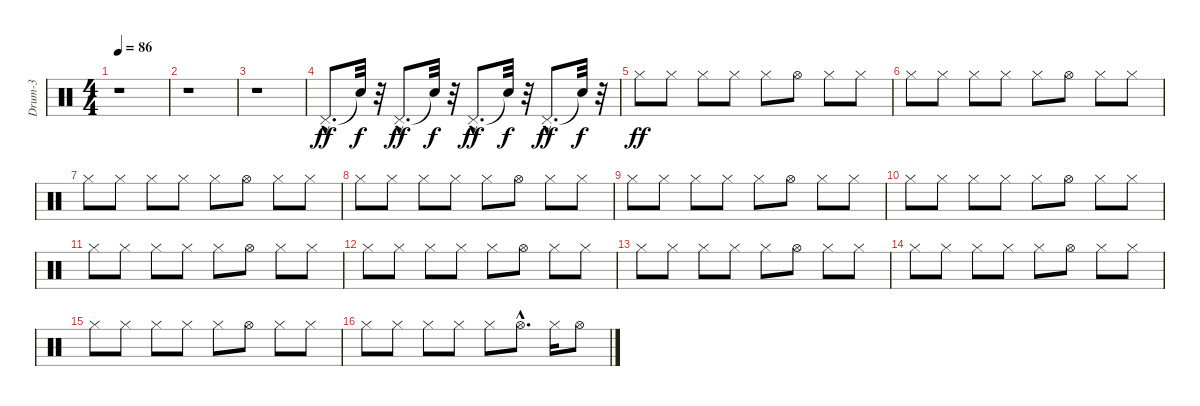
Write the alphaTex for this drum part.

\track ("Drum-3" "Drum-3") {instrument percussion}
\staff {score}
\articulation defaults
\ts (4 4)
\tempo 86
\clef neutral
\ks c
r.1{dy ff} |
r.1 |
r.1 |
"Pedal Hi-Hat (hit)"{hac}.8{d} "Snare (hit)"{t}.32{dy f} r.32 "Pedal Hi-Hat (hit)"{hac}.8{d dy ff} "Snare (hit)"{t}.32{dy f} r.32 "Pedal Hi-Hat (hit)"{hac}.8{d dy ff} "Snare (hit)"{t}.32{dy f} r.32 "Pedal Hi-Hat (hit)"{hac}.8{d dy ff} "Snare (hit)"{t}.32{dy f} r.32 |
"Hi-Hat (closed)".8{dy ff} "Hi-Hat (closed)".8 "Hi-Hat (closed)".8 "Hi-Hat (closed)".8 "Hi-Hat (closed)".8 "Hi-Hat (open)".8 "Hi-Hat (closed)".8 "Hi-Hat (closed)".8 |
"Hi-Hat (closed)".8 "Hi-Hat (closed)".8 "Hi-Hat (closed)".8 "Hi-Hat (closed)".8 "Hi-Hat (closed)".8 "Hi-Hat (open)".8 "Hi-Hat (closed)".8 "Hi-Hat (closed)".8 |
"Hi-Hat (closed)".8 "Hi-Hat (closed)".8 "Hi-Hat (closed)".8 "Hi-Hat (closed)".8 "Hi-Hat (closed)".8 "Hi-Hat (open)".8 "Hi-Hat (closed)".8 "Hi-Hat (closed)".8 |
"Hi-Hat (closed)".8 "Hi-Hat (closed)".8 "Hi-Hat (closed)".8 "Hi-Hat (closed)".8 "Hi-Hat (closed)".8 "Hi-Hat (open)".8 "Hi-Hat (closed)".8 "Hi-Hat (closed)".8 |
"Hi-Hat (closed)".8 "Hi-Hat (closed)".8 "Hi-Hat (closed)".8 "Hi-Hat (closed)".8 "Hi-Hat (closed)".8 "Hi-Hat (open)".8 "Hi-Hat (closed)".8 "Hi-Hat (closed)".8 |
"Hi-Hat (closed)".8 "Hi-Hat (closed)".8 "Hi-Hat (closed)".8 "Hi-Hat (closed)".8 "Hi-Hat (closed)".8 "Hi-Hat (open)".8 "Hi-Hat (closed)".8 "Hi-Hat (closed)".8 |
"Hi-Hat (closed)".8 "Hi-Hat (closed)".8 "Hi-Hat (closed)".8 "Hi-Hat (closed)".8 "Hi-Hat (closed)".8 "Hi-Hat (open)".8 "Hi-Hat (closed)".8 "Hi-Hat (closed)".8 |
"Hi-Hat (closed)".8 "Hi-Hat (closed)".8 "Hi-Hat (closed)".8 "Hi-Hat (closed)".8 "Hi-Hat (closed)".8 "Hi-Hat (open)".8 "Hi-Hat (closed)".8 "Hi-Hat (closed)".8 |
"Hi-Hat (closed)".8 "Hi-Hat (closed)".8 "Hi-Hat (closed)".8 "Hi-Hat (closed)".8 "Hi-Hat (closed)".8 "Hi-Hat (open)".8 "Hi-Hat (closed)".8 "Hi-Hat (closed)".8 |
"Hi-Hat (closed)".8 "Hi-Hat (closed)".8 "Hi-Hat (closed)".8 "Hi-Hat (closed)".8 "Hi-Hat (closed)".8 "Hi-Hat (open)".8 "Hi-Hat (closed)".8 "Hi-Hat (closed)".8 |
"Hi-Hat (closed)".8 "Hi-Hat (closed)".8 "Hi-Hat (closed)".8 "Hi-Hat (closed)".8 "Hi-Hat (closed)".8 "Hi-Hat (open)".8 "Hi-Hat (closed)".8 "Hi-Hat (closed)".8 |
"Hi-Hat (closed)".8 "Hi-Hat (closed)".8 "Hi-Hat (closed)".8 "Hi-Hat (closed)".8 "Hi-Hat (closed)".8 "Hi-Hat (open)"{hac}.8{d} "Hi-Hat (closed)".16 "Hi-Hat (open)".8
